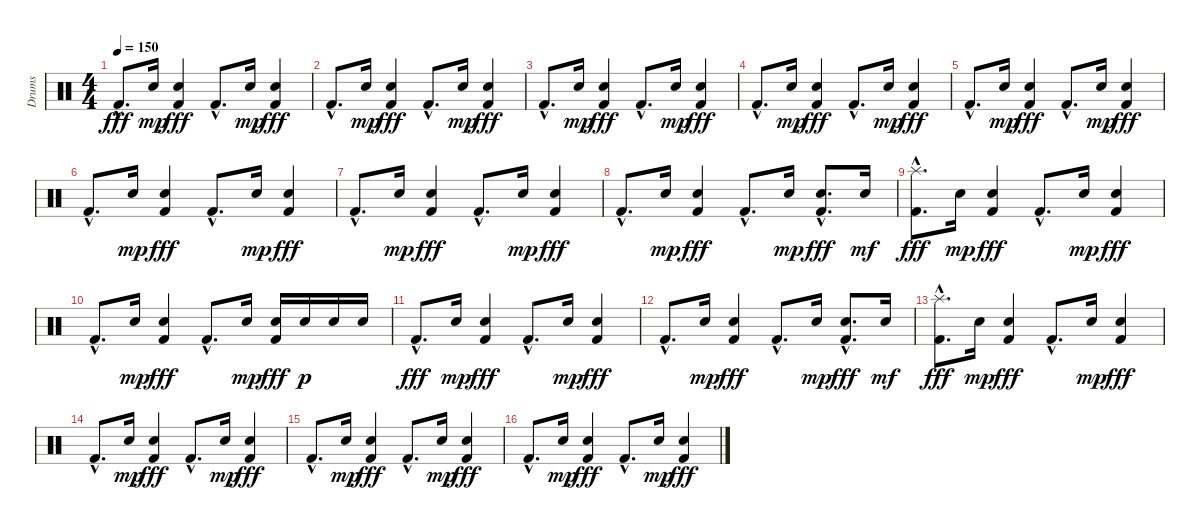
\track ("Drums" "Drums") {instrument percussion}
\staff {score}
\articulation defaults
\ts (4 4)
\tempo 150
\clef neutral
\ks c "Kick (hit) 2"{hac}.8{d dy fff} "Snare (hit) 2".16{dy mp}
("Snare (hit) 2" "Kick (hit) 2").4{dy fff} "Kick (hit) 2"{hac}.8{d} "Snare (hit) 2".16{dy mp} ("Snare (hit) 2" "Kick (hit) 2").4{dy fff} |
"Kick (hit) 2"{hac}.8{d} "Snare (hit) 2".16{dy mp} ("Snare (hit) 2" "Kick (hit) 2").4{dy fff} "Kick (hit) 2"{hac}.8{d} "Snare (hit) 2".16{dy mp} ("Snare (hit) 2" "Kick (hit) 2").4{dy fff} |
"Kick (hit) 2"{hac}.8{d} "Snare (hit) 2".16{dy mp} ("Snare (hit) 2" "Kick (hit) 2").4{dy fff} "Kick (hit) 2"{hac}.8{d} "Snare (hit) 2".16{dy mp} ("Snare (hit) 2" "Kick (hit) 2").4{dy fff} |
"Kick (hit) 2"{hac}.8{d} "Snare (hit) 2".16{dy mp} ("Snare (hit) 2" "Kick (hit) 2").4{dy fff} "Kick (hit) 2"{hac}.8{d} "Snare (hit) 2".16{dy mp} ("Snare (hit) 2" "Kick (hit) 2").4{dy fff} |
"Kick (hit) 2"{hac}.8{d} "Snare (hit) 2".16{dy mp} ("Snare (hit) 2" "Kick (hit) 2").4{dy fff} "Kick (hit) 2"{hac}.8{d} "Snare (hit) 2".16{dy mp} ("Snare (hit) 2" "Kick (hit) 2").4{dy fff} |
"Kick (hit) 2"{hac}.8{d} "Snare (hit) 2".16{dy mp} ("Snare (hit) 2" "Kick (hit) 2").4{dy fff} "Kick (hit) 2"{hac}.8{d} "Snare (hit) 2".16{dy mp} ("Snare (hit) 2" "Kick (hit) 2").4{dy fff} |
"Kick (hit) 2"{hac}.8{d} "Snare (hit) 2".16{dy mp} ("Snare (hit) 2" "Kick (hit) 2").4{dy fff} "Kick (hit) 2"{hac}.8{d} "Snare (hit) 2".16{dy mp} ("Snare (hit) 2" "Kick (hit) 2").4{dy fff} |
"Kick (hit) 2"{hac}.8{d} "Snare (hit) 2".16{dy mp} ("Snare (hit) 2" "Kick (hit) 2").4{dy fff} "Kick (hit) 2"{hac}.8{d} "Snare (hit) 2".16{dy mp} ("Snare (hit) 2"{hac} "Kick (hit) 2"{hac}).8{d dy fff} "Snare (hit) 2".16{dy mf} |
("Splash (hit)"{hac} "Kick (hit) 2"{hac}).8{d dy fff} "Snare (hit) 2".16{dy mp} ("Snare (hit) 2" "Kick (hit) 2").4{dy fff} "Kick (hit) 2"{hac}.8{d} "Snare (hit) 2".16{dy mp} ("Snare (hit) 2" "Kick (hit) 2").4{dy fff} |
"Kick (hit) 2"{hac}.8{d} "Snare (hit) 2".16{dy mp} ("Snare (hit) 2" "Kick (hit) 2").4{dy fff} "Kick (hit) 2"{hac}.8{d} "Snare (hit) 2".16{dy mp} ("Snare (hit) 2" "Kick (hit) 2").16{dy fff} "Snare (hit) 2".16{dy p} "Snare (hit) 2".16 "Snare (hit) 2".16 |
"Kick (hit) 2"{hac}.8{d dy fff} "Snare (hit) 2".16{dy mp} ("Snare (hit) 2" "Kick (hit) 2").4{dy fff} "Kick (hit) 2"{hac}.8{d} "Snare (hit) 2".16{dy mp} ("Snare (hit) 2" "Kick (hit) 2").4{dy fff} |
"Kick (hit) 2"{hac}.8{d} "Snare (hit) 2".16{dy mp} ("Snare (hit) 2" "Kick (hit) 2").4{dy fff} "Kick (hit) 2"{hac}.8{d} "Snare (hit) 2".16{dy mp} ("Snare (hit) 2"{hac} "Kick (hit) 2"{hac}).8{d dy fff} "Snare (hit) 2".16{dy mf} |
("Splash (hit)"{hac} "Kick (hit) 2"{hac}).8{d dy fff} "Snare (hit) 2".16{dy mp} ("Snare (hit) 2" "Kick (hit) 2").4{dy fff} "Kick (hit) 2"{hac}.8{d} "Snare (hit) 2".16{dy mp} ("Snare (hit) 2" "Kick (hit) 2").4{dy fff} |
"Kick (hit) 2"{hac}.8{d} "Snare (hit) 2".16{dy mp} ("Snare (hit) 2" "Kick (hit) 2").4{dy fff} "Kick (hit) 2"{hac}.8{d} "Snare (hit) 2".16{dy mp} ("Snare (hit) 2" "Kick (hit) 2").4{dy fff} |
"Kick (hit) 2"{hac}.8{d} "Snare (hit) 2".16{dy mp} ("Snare (hit) 2" "Kick (hit) 2").4{dy fff} "Kick (hit) 2"{hac}.8{d} "Snare (hit) 2".16{dy mp} ("Snare (hit) 2" "Kick (hit) 2").4{dy fff} |
"Kick (hit) 2"{hac}.8{d} "Snare (hit) 2".16{dy mp} ("Snare (hit) 2" "Kick (hit) 2").4{dy fff} "Kick (hit) 2"{hac}.8{d} "Snare (hit) 2".16{dy mp} ("Snare (hit) 2" "Kick (hit) 2").4{dy fff}
